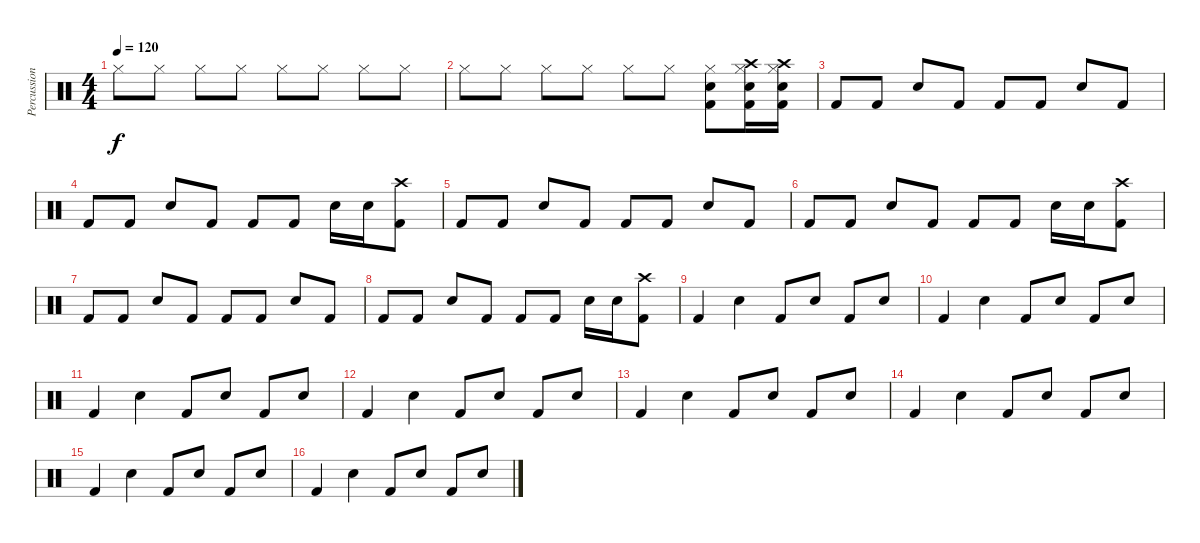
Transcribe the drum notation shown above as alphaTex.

\track ("Percussion" "Percussion") {instrument percussion}
\staff {score}
\articulation defaults
\ts (4 4)
\tempo 120
\clef neutral
\ks c "Hi-Hat (closed)".8{dy f} "Hi-Hat (closed)".8 "Hi-Hat (closed)".8 "Hi-Hat (closed)".8 "Hi-Hat (closed)".8 "Hi-Hat (closed)".8 "Hi-Hat (closed)".8 "Hi-Hat (closed)".8
|
"Hi-Hat (closed)".8 "Hi-Hat (closed)".8 "Hi-Hat (closed)".8 "Hi-Hat (closed)".8 "Hi-Hat (closed)".8 "Hi-Hat (closed)".8 ("Hi-Hat (closed)" "Snare (hit) 2" "Kick (hit) 2").8 ("Hi-Hat (closed)" "Crash high (hit)" "Snare (hit) 2" "Kick (hit) 2").16 ("Hi-Hat (closed)" "Crash high (hit)" "Snare (hit) 2" "Kick (hit) 2").16 |
"Kick (hit) 2".8 "Kick (hit) 2".8 "Snare (hit) 2".8 "Kick (hit) 2".8 "Kick (hit) 2".8 "Kick (hit) 2".8 "Snare (hit) 2".8 "Kick (hit) 2".8 |
"Kick (hit) 2".8 "Kick (hit) 2".8 "Snare (hit) 2".8 "Kick (hit) 2".8 "Kick (hit) 2".8 "Kick (hit) 2".8 "Snare (hit) 2".16 "Snare (hit) 2".16 ("Crash high (hit)" "Kick (hit) 2").8 |
"Kick (hit) 2".8 "Kick (hit) 2".8 "Snare (hit) 2".8 "Kick (hit) 2".8 "Kick (hit) 2".8 "Kick (hit) 2".8 "Snare (hit) 2".8 "Kick (hit) 2".8 |
"Kick (hit) 2".8 "Kick (hit) 2".8 "Snare (hit) 2".8 "Kick (hit) 2".8 "Kick (hit) 2".8 "Kick (hit) 2".8 "Snare (hit) 2".16 "Snare (hit) 2".16 ("Crash high (hit)" "Kick (hit) 2").8 |
"Kick (hit) 2".8 "Kick (hit) 2".8 "Snare (hit) 2".8 "Kick (hit) 2".8 "Kick (hit) 2".8 "Kick (hit) 2".8 "Snare (hit) 2".8 "Kick (hit) 2".8 |
"Kick (hit) 2".8 "Kick (hit) 2".8 "Snare (hit) 2".8 "Kick (hit) 2".8 "Kick (hit) 2".8 "Kick (hit) 2".8 "Snare (hit) 2".16 "Snare (hit) 2".16 ("Crash high (hit)" "Kick (hit) 2").8 |
"Kick (hit) 2".4 "Snare (hit) 2".4 "Kick (hit) 2".8 "Snare (hit) 2".8 "Kick (hit) 2".8 "Snare (hit) 2".8 |
"Kick (hit) 2".4 "Snare (hit) 2".4 "Kick (hit) 2".8 "Snare (hit) 2".8 "Kick (hit) 2".8 "Snare (hit) 2".8 |
"Kick (hit) 2".4 "Snare (hit) 2".4 "Kick (hit) 2".8 "Snare (hit) 2".8 "Kick (hit) 2".8 "Snare (hit) 2".8 |
"Kick (hit) 2".4 "Snare (hit) 2".4 "Kick (hit) 2".8 "Snare (hit) 2".8 "Kick (hit) 2".8 "Snare (hit) 2".8 |
"Kick (hit) 2".4 "Snare (hit) 2".4 "Kick (hit) 2".8 "Snare (hit) 2".8 "Kick (hit) 2".8 "Snare (hit) 2".8 |
"Kick (hit) 2".4 "Snare (hit) 2".4 "Kick (hit) 2".8 "Snare (hit) 2".8 "Kick (hit) 2".8 "Snare (hit) 2".8 |
"Kick (hit) 2".4 "Snare (hit) 2".4 "Kick (hit) 2".8 "Snare (hit) 2".8 "Kick (hit) 2".8 "Snare (hit) 2".8 |
"Kick (hit) 2".4 "Snare (hit) 2".4 "Kick (hit) 2".8 "Snare (hit) 2".8 "Kick (hit) 2".8 "Snare (hit) 2".8
